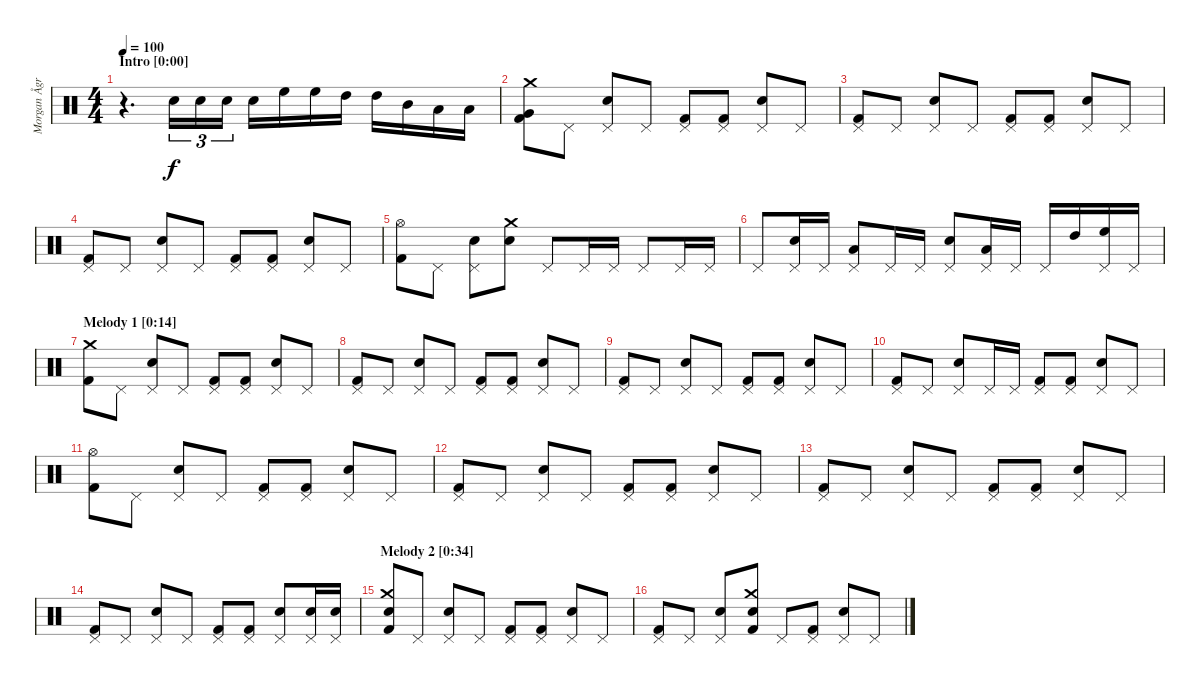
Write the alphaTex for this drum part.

\track ("Morgan Ågren" "Morgan Ågr") {instrument percussion}
\staff {score}
\articulation defaults
\ts (4 4)
\section ("" "Intro [0:00]")
\tempo 100
\clef neutral
\ks c
r.4{d dy f} "Electric Snare (hit)".16{tu (3 2)} "Electric Snare (hit)".16{tu (3 2)} "Electric Snare (hit)".16{tu (3 2)} "Electric Snare (hit)".16 "High Floor Tom (hit)".16 "High Floor Tom (hit)".16 "High Tom (hit)".16 "High Tom (hit)".16 "Mid Tom (hit)".16 "Low Tom (hit)".16 "Low Tom (hit)".16 |
("Crash medium (hit)" "Very Low Tom (hit)" "Kick (hit) 2").8 "Pedal Hi-Hat (hit)".8 ("Pedal Hi-Hat (hit)" "Electric Snare (hit)").8 "Pedal Hi-Hat (hit)".8 ("Pedal Hi-Hat (hit)" "Kick (hit) 2").8 ("Pedal Hi-Hat (hit)" "Kick (hit) 2").8 ("Pedal Hi-Hat (hit)" "Electric Snare (hit)").8 "Pedal Hi-Hat (hit)".8 |
("Pedal Hi-Hat (hit)" "Kick (hit) 2").8 "Pedal Hi-Hat (hit)".8 ("Pedal Hi-Hat (hit)" "Electric Snare (hit)").8 "Pedal Hi-Hat (hit)".8 ("Pedal Hi-Hat (hit)" "Kick (hit) 2").8 ("Pedal Hi-Hat (hit)" "Kick (hit) 2").8 ("Pedal Hi-Hat (hit)" "Electric Snare (hit)").8 "Pedal Hi-Hat (hit)".8 |
("Pedal Hi-Hat (hit)" "Kick (hit) 2").8 "Pedal Hi-Hat (hit)".8 ("Pedal Hi-Hat (hit)" "Electric Snare (hit)").8 "Pedal Hi-Hat (hit)".8 ("Pedal Hi-Hat (hit)" "Kick (hit) 2").8 ("Pedal Hi-Hat (hit)" "Kick (hit) 2").8 ("Pedal Hi-Hat (hit)" "Electric Snare (hit)").8 "Pedal Hi-Hat (hit)".8 |
("Hi-Hat (open)" "Kick (hit) 2").8 "Pedal Hi-Hat (hit)".8 ("Pedal Hi-Hat (hit)" "Electric Snare (hit)").8 ("Crash medium (hit)" "Electric Snare (hit)").8 "Pedal Hi-Hat (hit)".8 "Pedal Hi-Hat (hit)".16 "Pedal Hi-Hat (hit)".16 "Pedal Hi-Hat (hit)".8 "Pedal Hi-Hat (hit)".16 "Pedal Hi-Hat (hit)".16 |
"Pedal Hi-Hat (hit)".8 ("Pedal Hi-Hat (hit)" "Electric Snare (hit)").16 "Pedal Hi-Hat (hit)".16 ("Pedal Hi-Hat (hit)" "Low Tom (hit)").8 "Pedal Hi-Hat (hit)".16 "Pedal Hi-Hat (hit)".16 ("Pedal Hi-Hat (hit)" "Electric Snare (hit)").8 ("Pedal Hi-Hat (hit)" "Low Tom (hit)").16 "Pedal Hi-Hat (hit)".16 "Pedal Hi-Hat (hit)".16 "High Tom (hit)".16 ("Pedal Hi-Hat (hit)" "High Floor Tom (hit)").16 "Pedal Hi-Hat (hit)".16 |
\section ("" "Melody 1 [0:14]")
("Crash medium (hit)" "Kick (hit) 2").8 "Pedal Hi-Hat (hit)".8 ("Pedal Hi-Hat (hit)" "Electric Snare (hit)").8 "Pedal Hi-Hat (hit)".8 ("Pedal Hi-Hat (hit)" "Kick (hit) 2").8 ("Pedal Hi-Hat (hit)" "Kick (hit) 2").8 ("Pedal Hi-Hat (hit)" "Electric Snare (hit)").8 "Pedal Hi-Hat (hit)".8 |
("Pedal Hi-Hat (hit)" "Kick (hit) 2").8 "Pedal Hi-Hat (hit)".8 ("Pedal Hi-Hat (hit)" "Electric Snare (hit)").8 "Pedal Hi-Hat (hit)".8 ("Pedal Hi-Hat (hit)" "Kick (hit) 2").8 ("Pedal Hi-Hat (hit)" "Kick (hit) 2").8 ("Pedal Hi-Hat (hit)" "Electric Snare (hit)").8 "Pedal Hi-Hat (hit)".8 |
("Pedal Hi-Hat (hit)" "Kick (hit) 2").8 "Pedal Hi-Hat (hit)".8 ("Pedal Hi-Hat (hit)" "Electric Snare (hit)").8 "Pedal Hi-Hat (hit)".8 ("Pedal Hi-Hat (hit)" "Kick (hit) 2").8 ("Pedal Hi-Hat (hit)" "Kick (hit) 2").8 ("Pedal Hi-Hat (hit)" "Electric Snare (hit)").8 "Pedal Hi-Hat (hit)".8 |
("Pedal Hi-Hat (hit)" "Kick (hit) 2").8 "Pedal Hi-Hat (hit)".8 ("Pedal Hi-Hat (hit)" "Electric Snare (hit)").8 "Pedal Hi-Hat (hit)".16 "Pedal Hi-Hat (hit)".16 ("Pedal Hi-Hat (hit)" "Kick (hit) 2").8 ("Pedal Hi-Hat (hit)" "Kick (hit) 2").8 ("Pedal Hi-Hat (hit)" "Electric Snare (hit)").8 "Pedal Hi-Hat (hit)".8 |
("Hi-Hat (open)" "Kick (hit) 2").8 "Pedal Hi-Hat (hit)".8 ("Pedal Hi-Hat (hit)" "Electric Snare (hit)").8 "Pedal Hi-Hat (hit)".8 ("Pedal Hi-Hat (hit)" "Kick (hit) 2").8 ("Pedal Hi-Hat (hit)" "Kick (hit) 2").8 ("Pedal Hi-Hat (hit)" "Electric Snare (hit)").8 "Pedal Hi-Hat (hit)".8 |
("Pedal Hi-Hat (hit)" "Kick (hit) 2").8 "Pedal Hi-Hat (hit)".8 ("Pedal Hi-Hat (hit)" "Electric Snare (hit)").8 "Pedal Hi-Hat (hit)".8 ("Pedal Hi-Hat (hit)" "Kick (hit) 2").8 ("Pedal Hi-Hat (hit)" "Kick (hit) 2").8 ("Pedal Hi-Hat (hit)" "Electric Snare (hit)").8 "Pedal Hi-Hat (hit)".8 |
("Pedal Hi-Hat (hit)" "Kick (hit) 2").8 "Pedal Hi-Hat (hit)".8 ("Pedal Hi-Hat (hit)" "Electric Snare (hit)").8 "Pedal Hi-Hat (hit)".8 ("Pedal Hi-Hat (hit)" "Kick (hit) 2").8 ("Pedal Hi-Hat (hit)" "Kick (hit) 2").8 ("Pedal Hi-Hat (hit)" "Electric Snare (hit)").8 "Pedal Hi-Hat (hit)".8 |
("Pedal Hi-Hat (hit)" "Kick (hit) 2").8 "Pedal Hi-Hat (hit)".8 ("Pedal Hi-Hat (hit)" "Electric Snare (hit)").8 "Pedal Hi-Hat (hit)".8 ("Pedal Hi-Hat (hit)" "Kick (hit) 2").8 ("Pedal Hi-Hat (hit)" "Kick (hit) 2").8 ("Pedal Hi-Hat (hit)" "Electric Snare (hit)").8 ("Pedal Hi-Hat (hit)" "Electric Snare (hit)").16 ("Pedal Hi-Hat (hit)" "Electric Snare (hit)").16 |
\section ("" "Melody 2 [0:34]")
("Crash medium (hit)" "Electric Snare (hit)" "Kick (hit) 2").8 "Pedal Hi-Hat (hit)".8 ("Pedal Hi-Hat (hit)" "Electric Snare (hit)").8 "Pedal Hi-Hat (hit)".8 ("Pedal Hi-Hat (hit)" "Kick (hit) 2").8 ("Pedal Hi-Hat (hit)" "Kick (hit) 2").8 ("Pedal Hi-Hat (hit)" "Electric Snare (hit)").8 "Pedal Hi-Hat (hit)".8 |
("Pedal Hi-Hat (hit)" "Kick (hit) 2").8 "Pedal Hi-Hat (hit)".8 ("Pedal Hi-Hat (hit)" "Electric Snare (hit)").8 ("Crash medium (hit)" "Electric Snare (hit)" "Kick (hit) 2").8 "Pedal Hi-Hat (hit)".8 ("Pedal Hi-Hat (hit)" "Kick (hit) 2").8 ("Pedal Hi-Hat (hit)" "Electric Snare (hit)").8 "Pedal Hi-Hat (hit)".8
